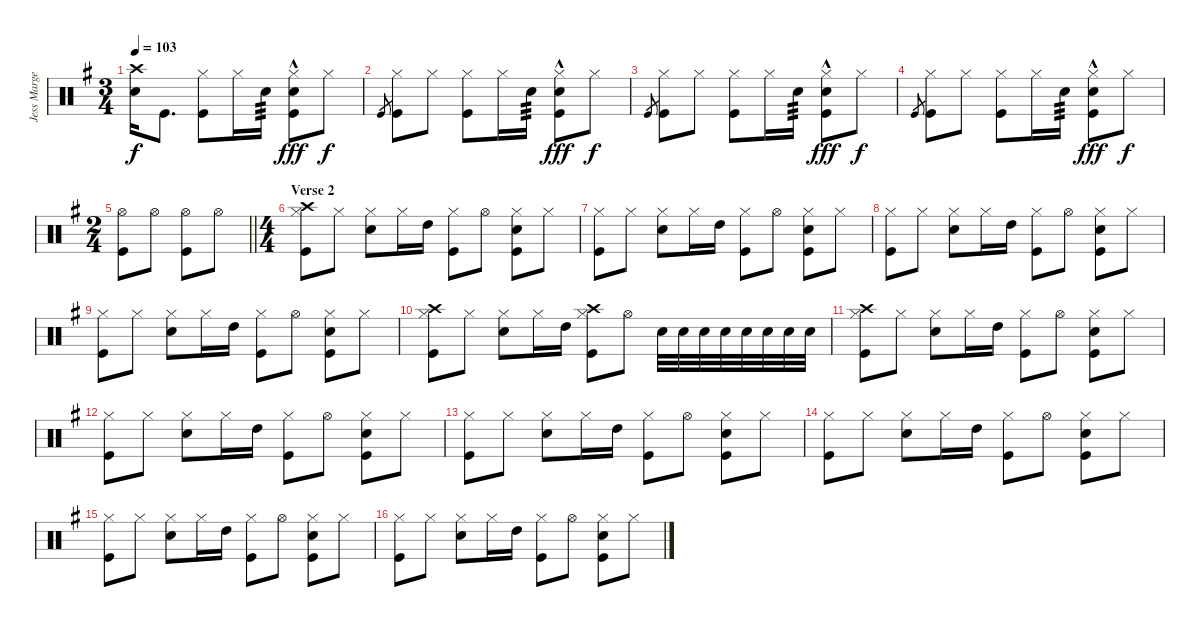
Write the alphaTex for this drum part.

\track ("Jess Margera" "Jess Marge") {instrument percussion}
\staff {score}
\articulation defaults
\ts (3 4)
\tempo 103
\clef neutral
\ks g
("Crash high (hit)" "Snare (hit) 2").16{dy f} "Kick (hit)".8{d} ("Hi-Hat (closed)" "Kick (hit)").8 "Hi-Hat (closed)".16 "Snare (hit) 2".16{tp 3} ("Hi-Hat (closed)"{hac} "Snare (hit) 2"{hac} "Kick (hit)"{hac}).8{dy fff} "Hi-Hat (closed)".8{dy f} |
"Kick (hit)".8{gr} ("Hi-Hat (closed)" "Kick (hit)").8 "Hi-Hat (closed)".8 ("Hi-Hat (closed)" "Kick (hit)").8 "Hi-Hat (closed)".16 "Snare (hit) 2".16{tp 3} ("Hi-Hat (closed)"{hac} "Snare (hit) 2"{hac} "Kick (hit)"{hac}).8{dy fff} "Hi-Hat (closed)".8{dy f} |
"Kick (hit)".8{gr} ("Hi-Hat (closed)" "Kick (hit)").8 "Hi-Hat (closed)".8 ("Hi-Hat (closed)" "Kick (hit)").8 "Hi-Hat (closed)".16 "Snare (hit) 2".16{tp 3} ("Hi-Hat (closed)"{hac} "Snare (hit) 2"{hac} "Kick (hit)"{hac}).8{dy fff} "Hi-Hat (closed)".8{dy f} |
"Kick (hit)".8{gr} ("Hi-Hat (closed)" "Kick (hit)").8 "Hi-Hat (closed)".8 ("Hi-Hat (closed)" "Kick (hit)").8 "Hi-Hat (closed)".16 "Snare (hit) 2".16{tp 3} ("Hi-Hat (closed)"{hac} "Snare (hit) 2"{hac} "Kick (hit)"{hac}).8{dy fff} "Hi-Hat (closed)".8{dy f} |
\ts (2 4)
\barLineRight lightlight
("Hi-Hat (open)" "Kick (hit)").8 "Hi-Hat (open)".8 ("Hi-Hat (open)" "Kick (hit)").8 "Hi-Hat (open)".8 |
\ts (4 4)
\section ("" "Verse 2")
("Crash high (hit)" "Hi-Hat (closed)" "Kick (hit)").8 "Hi-Hat (closed)".8 ("Hi-Hat (closed)" "Snare (hit) 2").8 "Hi-Hat (closed)".16 "High Tom (hit)".16 ("Hi-Hat (closed)" "Kick (hit)").8 "Hi-Hat (open)".8 ("Hi-Hat (closed)" "Snare (hit) 2" "Kick (hit)").8 "Hi-Hat (closed)".8 |
("Hi-Hat (closed)" "Kick (hit)").8 "Hi-Hat (closed)".8 ("Hi-Hat (closed)" "Snare (hit) 2").8 "Hi-Hat (closed)".16 "High Tom (hit)".16 ("Hi-Hat (closed)" "Kick (hit)").8 "Hi-Hat (open)".8 ("Hi-Hat (closed)" "Snare (hit) 2" "Kick (hit)").8 "Hi-Hat (closed)".8 |
("Hi-Hat (closed)" "Kick (hit)").8 "Hi-Hat (closed)".8 ("Hi-Hat (closed)" "Snare (hit) 2").8 "Hi-Hat (closed)".16 "High Tom (hit)".16 ("Hi-Hat (closed)" "Kick (hit)").8 "Hi-Hat (open)".8 ("Hi-Hat (closed)" "Snare (hit) 2" "Kick (hit)").8 "Hi-Hat (closed)".8 |
("Hi-Hat (closed)" "Kick (hit)").8 "Hi-Hat (closed)".8 ("Hi-Hat (closed)" "Snare (hit) 2").8 "Hi-Hat (closed)".16 "High Tom (hit)".16 ("Hi-Hat (closed)" "Kick (hit)").8 "Hi-Hat (open)".8 ("Hi-Hat (closed)" "Snare (hit) 2" "Kick (hit)").8 "Hi-Hat (closed)".8 |
("Crash high (hit)" "Hi-Hat (closed)" "Kick (hit)").8 "Hi-Hat (closed)".8 ("Hi-Hat (closed)" "Snare (hit) 2").8 "Hi-Hat (closed)".16 "High Tom (hit)".16 ("Crash high (hit)" "Hi-Hat (closed)" "Kick (hit)").8 "Hi-Hat (open)".8 "Snare (hit) 2".32 "Snare (hit) 2".32 "Snare (hit) 2".32 "Snare (hit) 2".32 "Snare (hit) 2".32 "Snare (hit) 2".32 "Snare (hit) 2".32 "Snare (hit) 2".32 |
("Crash high (hit)" "Hi-Hat (closed)" "Kick (hit)").8 "Hi-Hat (closed)".8 ("Hi-Hat (closed)" "Snare (hit) 2").8 "Hi-Hat (closed)".16 "High Tom (hit)".16 ("Hi-Hat (closed)" "Kick (hit)").8 "Hi-Hat (open)".8 ("Hi-Hat (closed)" "Snare (hit) 2" "Kick (hit)").8 "Hi-Hat (closed)".8 |
("Hi-Hat (closed)" "Kick (hit)").8 "Hi-Hat (closed)".8 ("Hi-Hat (closed)" "Snare (hit) 2").8 "Hi-Hat (closed)".16 "High Tom (hit)".16 ("Hi-Hat (closed)" "Kick (hit)").8 "Hi-Hat (open)".8 ("Hi-Hat (closed)" "Snare (hit) 2" "Kick (hit)").8 "Hi-Hat (closed)".8 |
("Hi-Hat (closed)" "Kick (hit)").8 "Hi-Hat (closed)".8 ("Hi-Hat (closed)" "Snare (hit) 2").8 "Hi-Hat (closed)".16 "High Tom (hit)".16 ("Hi-Hat (closed)" "Kick (hit)").8 "Hi-Hat (open)".8 ("Hi-Hat (closed)" "Snare (hit) 2" "Kick (hit)").8 "Hi-Hat (closed)".8 |
("Hi-Hat (closed)" "Kick (hit)").8 "Hi-Hat (closed)".8 ("Hi-Hat (closed)" "Snare (hit) 2").8 "Hi-Hat (closed)".16 "High Tom (hit)".16 ("Hi-Hat (closed)" "Kick (hit)").8 "Hi-Hat (open)".8 ("Hi-Hat (closed)" "Snare (hit) 2" "Kick (hit)").8 "Hi-Hat (closed)".8 |
("Hi-Hat (closed)" "Kick (hit)").8 "Hi-Hat (closed)".8 ("Hi-Hat (closed)" "Snare (hit) 2").8 "Hi-Hat (closed)".16 "High Tom (hit)".16 ("Hi-Hat (closed)" "Kick (hit)").8 "Hi-Hat (open)".8 ("Hi-Hat (closed)" "Snare (hit) 2" "Kick (hit)").8 "Hi-Hat (closed)".8 |
("Hi-Hat (closed)" "Kick (hit)").8 "Hi-Hat (closed)".8 ("Hi-Hat (closed)" "Snare (hit) 2").8 "Hi-Hat (closed)".16 "High Tom (hit)".16 ("Hi-Hat (closed)" "Kick (hit)").8 "Hi-Hat (open)".8 ("Hi-Hat (closed)" "Snare (hit) 2" "Kick (hit)").8 "Hi-Hat (closed)".8
